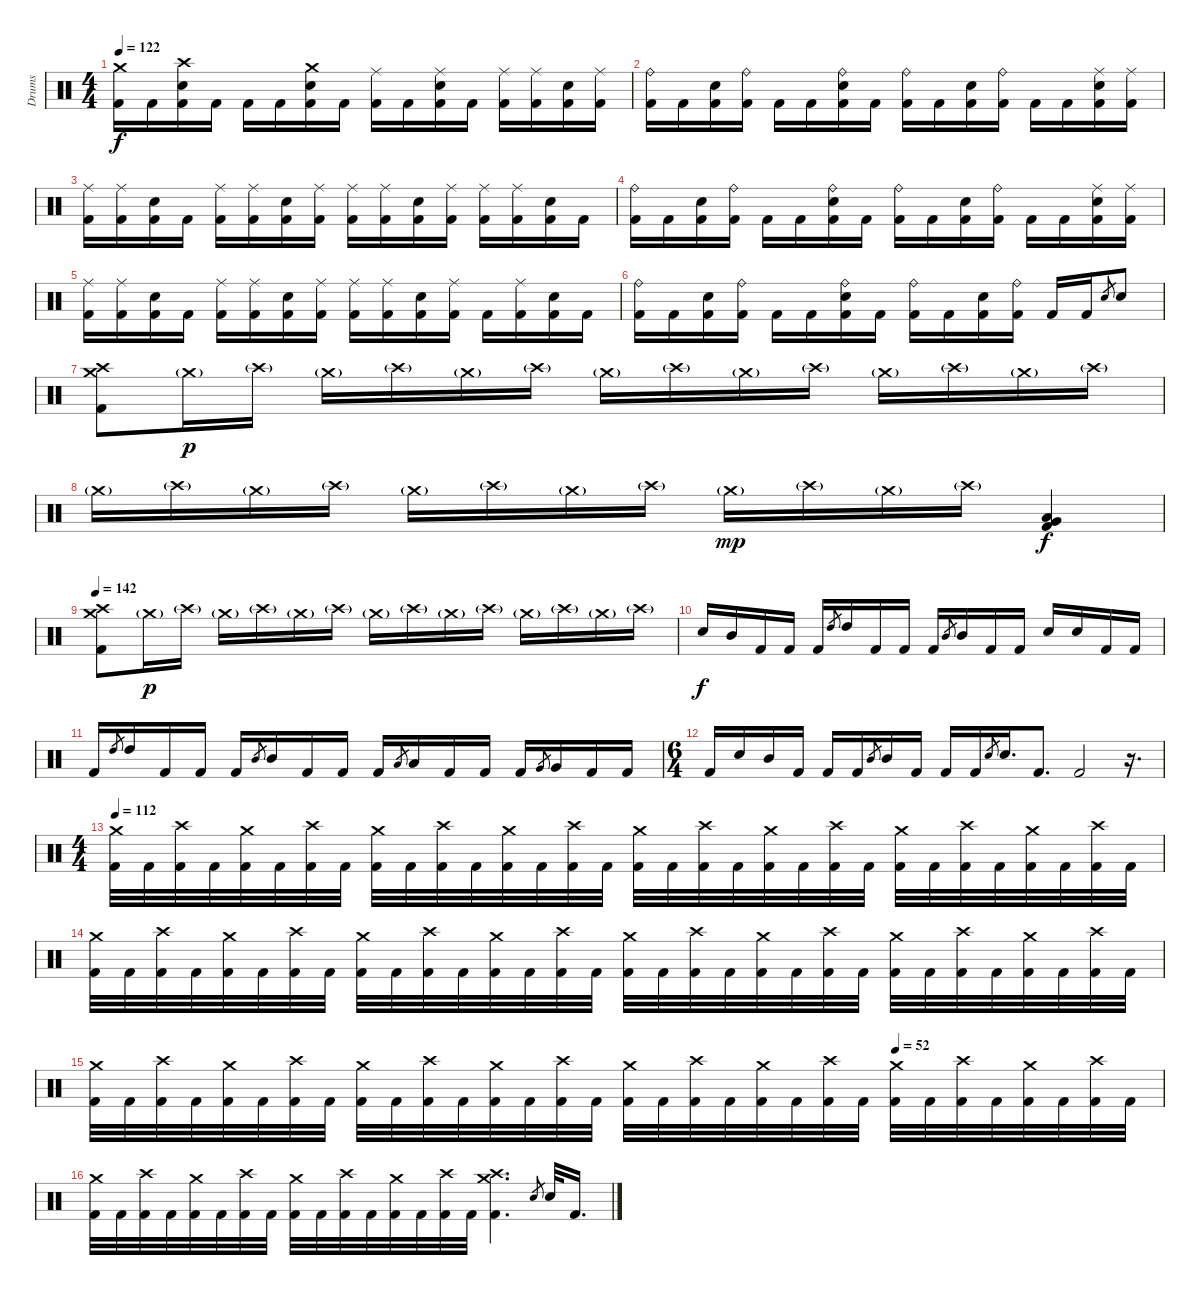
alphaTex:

\track ("Drums" "Drums") {instrument percussion}
\staff {score}
\articulation defaults
\ts (4 4)
\tempo 122
\clef neutral
\ks c
("Crash medium (hit)" "Kick (hit) 2").16{dy f} "Kick (hit) 2".16 ("Crash high (hit)" "Electric Snare (hit)" "Kick (hit) 2").16 "Kick (hit) 2".16 "Kick (hit) 2".16 "Kick (hit) 2".16 ("Crash medium (hit)" "Electric Snare (hit)" "Kick (hit) 2").16 "Kick (hit) 2".16 ("Ride (middle)" "Kick (hit) 2").16 "Kick (hit) 2".16 ("Ride (middle)" "Electric Snare (hit)" "Kick (hit) 2").16 "Kick (hit) 2".16 ("Ride (middle)" "Kick (hit) 2").16 ("Ride (middle)" "Kick (hit) 2").16 ("Electric Snare (hit)" "Kick (hit) 2").16 ("Ride (middle)" "Kick (hit) 2").16 |
("Ride (bell)" "Kick (hit) 2").16 "Kick (hit) 2".16 ("Electric Snare (hit)" "Kick (hit) 2").16 ("Ride (bell)" "Kick (hit) 2").16 "Kick (hit) 2".16 "Kick (hit) 2".16 ("Ride (bell)" "Electric Snare (hit)" "Kick (hit) 2").16 "Kick (hit) 2".16 ("Ride (bell)" "Kick (hit) 2").16 "Kick (hit) 2".16 ("Electric Snare (hit)" "Kick (hit) 2").16 ("Ride (bell)" "Kick (hit) 2").16 "Kick (hit) 2".16 "Kick (hit) 2".16 ("Ride (middle)" "Electric Snare (hit)" "Kick (hit) 2").16 ("Ride (middle)" "Kick (hit) 2").16 |
("Ride (middle)" "Kick (hit) 2").16 ("Ride (middle)" "Kick (hit) 2").16 ("Electric Snare (hit)" "Kick (hit) 2").16 "Kick (hit) 2".16 ("Ride (middle)" "Kick (hit) 2").16 ("Ride (middle)" "Kick (hit) 2").16 ("Electric Snare (hit)" "Kick (hit) 2").16 ("Ride (middle)" "Kick (hit) 2").16 ("Ride (middle)" "Kick (hit) 2").16 ("Ride (middle)" "Kick (hit) 2").16 ("Electric Snare (hit)" "Kick (hit) 2").16 ("Ride (middle)" "Kick (hit) 2").16 ("Ride (middle)" "Kick (hit) 2").16 ("Ride (middle)" "Kick (hit) 2").16 ("Electric Snare (hit)" "Kick (hit) 2").16 "Kick (hit) 2".16 |
("Ride (bell)" "Kick (hit) 2").16 "Kick (hit) 2".16 ("Electric Snare (hit)" "Kick (hit) 2").16 ("Ride (bell)" "Kick (hit) 2").16 "Kick (hit) 2".16 "Kick (hit) 2".16 ("Ride (bell)" "Electric Snare (hit)" "Kick (hit) 2").16 "Kick (hit) 2".16 ("Ride (bell)" "Kick (hit) 2").16 "Kick (hit) 2".16 ("Electric Snare (hit)" "Kick (hit) 2").16 ("Ride (bell)" "Kick (hit) 2").16 "Kick (hit) 2".16 "Kick (hit) 2".16 ("Ride (middle)" "Electric Snare (hit)" "Kick (hit) 2").16 ("Ride (middle)" "Kick (hit) 2").16 |
("Ride (middle)" "Kick (hit) 2").16 ("Ride (middle)" "Kick (hit) 2").16 ("Electric Snare (hit)" "Kick (hit) 2").16 "Kick (hit) 2".16 ("Ride (middle)" "Kick (hit) 2").16 ("Ride (middle)" "Kick (hit) 2").16 ("Electric Snare (hit)" "Kick (hit) 2").16 ("Ride (middle)" "Kick (hit) 2").16 ("Ride (middle)" "Kick (hit) 2").16 ("Ride (middle)" "Kick (hit) 2").16 ("Electric Snare (hit)" "Kick (hit) 2").16 ("Ride (middle)" "Kick (hit) 2").16 "Kick (hit) 2".16 ("Ride (middle)" "Kick (hit) 2").16 ("Electric Snare (hit)" "Kick (hit) 2").16 "Kick (hit) 2".16 |
("Ride (bell)" "Kick (hit) 2").16 "Kick (hit) 2".16 ("Electric Snare (hit)" "Kick (hit) 2").16 ("Ride (bell)" "Kick (hit) 2").16 "Kick (hit) 2".16 "Kick (hit) 2".16 ("Ride (bell)" "Electric Snare (hit)" "Kick (hit) 2").16 "Kick (hit) 2".16 ("Ride (bell)" "Kick (hit) 2").16 "Kick (hit) 2".16 ("Electric Snare (hit)" "Kick (hit) 2").16 ("Ride (bell)" "Kick (hit) 2").16 "Kick (hit) 2".16 "Kick (hit) 2".16 "Electric Snare (hit)".8{gr} "Electric Snare (hit)".8 |
("Crash medium (hit)" "Crash high (hit)" "Kick (hit) 2").8 "Crash medium (hit)"{g}.16{dy p} "Crash high (hit)"{g}.16 "Crash medium (hit)"{g}.16 "Crash high (hit)"{g}.16 "Crash medium (hit)"{g}.16 "Crash high (hit)"{g}.16 "Crash medium (hit)"{g}.16 "Crash high (hit)"{g}.16 "Crash medium (hit)"{g}.16 "Crash high (hit)"{g}.16 "Crash medium (hit)"{g}.16 "Crash high (hit)"{g}.16 "Crash medium (hit)"{g}.16 "Crash high (hit)"{g}.16 |
"Crash medium (hit)"{g}.16 "Crash high (hit)"{g}.16 "Crash medium (hit)"{g}.16 "Crash high (hit)"{g}.16 "Crash medium (hit)"{g}.16 "Crash high (hit)"{g}.16 "Crash medium (hit)"{g}.16 "Crash high (hit)"{g}.16 "Crash medium (hit)"{g}.16{dy mp} "Crash high (hit)"{g}.16 "Crash medium (hit)"{g}.16 "Crash high (hit)"{g}.16 ("Very Low Tom (hit)" "Low Tom (hit)" "Kick (hit) 2").4{dy f} |
\tempo 142
("Crash medium (hit)" "Crash high (hit)" "Kick (hit) 2").8 "Crash medium (hit)"{g}.16{dy p} "Crash high (hit)"{g}.16 "Crash medium (hit)"{g}.16 "Crash high (hit)"{g}.16 "Crash medium (hit)"{g}.16 "Crash high (hit)"{g}.16 "Crash medium (hit)"{g}.16 "Crash high (hit)"{g}.16 "Crash medium (hit)"{g}.16 "Crash high (hit)"{g}.16 "Crash medium (hit)"{g}.16 "Crash high (hit)"{g}.16 "Crash medium (hit)"{g}.16 "Crash high (hit)"{g}.16 |
"Electric Snare (hit)".16{dy f} "Mid Tom (hit)".16 "Kick (hit) 2".16 "Kick (hit) 2".16 "Kick (hit) 2".16 "High Tom (hit)".8{gr} "High Tom (hit)".16 "Kick (hit) 2".16 "Kick (hit) 2".16 "Kick (hit) 2".16 "Mid Tom (hit)".8{gr} "Mid Tom (hit)".16 "Kick (hit) 2".16 "Kick (hit) 2".16 "Electric Snare (hit)".16 "Electric Snare (hit)".16 "Kick (hit) 2".16 "Kick (hit) 2".16 |
"Kick (hit) 2".16 "High Tom (hit)".8{gr} "High Tom (hit)".16 "Kick (hit) 2".16 "Kick (hit) 2".16 "Kick (hit) 2".16 "Mid Tom (hit)".8{gr} "Mid Tom (hit)".16 "Kick (hit) 2".16 "Kick (hit) 2".16 "Kick (hit) 2".16 "Low Tom (hit)".8{gr} "Low Tom (hit)".16 "Kick (hit) 2".16 "Kick (hit) 2".16 "Kick (hit) 2".16 "Very Low Tom (hit)".8{gr} "Very Low Tom (hit)".16 "Kick (hit) 2".16 "Kick (hit) 2".16 |
\ts (6 4)
"Kick (hit) 2".16 "Electric Snare (hit)".16 "Mid Tom (hit)".16 "Kick (hit) 2".16 "Kick (hit) 2".16 "Kick (hit) 2".16 "Mid Tom (hit)".8{gr} "Mid Tom (hit)".16 "Kick (hit) 2".16 "Kick (hit) 2".16 "Kick (hit) 2".16 "Electric Snare (hit)".8{gr} "Electric Snare (hit)".16{d} "Kick (hit) 2".8{d} "Kick (hit) 2".2 r.16{d} |
\ts (4 4)
\tempo 112
("Crash medium (hit)" "Kick (hit) 2").32 "Kick (hit) 2".32 ("Crash high (hit)" "Kick (hit) 2").32 "Kick (hit) 2".32 ("Crash medium (hit)" "Kick (hit) 2").32 "Kick (hit) 2".32 ("Crash high (hit)" "Kick (hit) 2").32 "Kick (hit) 2".32 ("Crash medium (hit)" "Kick (hit) 2").32 "Kick (hit) 2".32 ("Crash high (hit)" "Kick (hit) 2").32 "Kick (hit) 2".32 ("Crash medium (hit)" "Kick (hit) 2").32 "Kick (hit) 2".32 ("Crash high (hit)" "Kick (hit) 2").32 "Kick (hit) 2".32 ("Crash medium (hit)" "Kick (hit) 2").32 "Kick (hit) 2".32 ("Crash high (hit)" "Kick (hit) 2").32 "Kick (hit) 2".32 ("Crash medium (hit)" "Kick (hit) 2").32 "Kick (hit) 2".32 ("Crash high (hit)" "Kick (hit) 2").32 "Kick (hit) 2".32 ("Crash medium (hit)" "Kick (hit) 2").32 "Kick (hit) 2".32 ("Crash high (hit)" "Kick (hit) 2").32 "Kick (hit) 2".32 ("Crash medium (hit)" "Kick (hit) 2").32 "Kick (hit) 2".32 ("Crash high (hit)" "Kick (hit) 2").32 "Kick (hit) 2".32 |
("Crash medium (hit)" "Kick (hit) 2").32 "Kick (hit) 2".32 ("Crash high (hit)" "Kick (hit) 2").32 "Kick (hit) 2".32 ("Crash medium (hit)" "Kick (hit) 2").32 "Kick (hit) 2".32 ("Crash high (hit)" "Kick (hit) 2").32 "Kick (hit) 2".32 ("Crash medium (hit)" "Kick (hit) 2").32 "Kick (hit) 2".32 ("Crash high (hit)" "Kick (hit) 2").32 "Kick (hit) 2".32 ("Crash medium (hit)" "Kick (hit) 2").32 "Kick (hit) 2".32 ("Crash high (hit)" "Kick (hit) 2").32 "Kick (hit) 2".32 ("Crash medium (hit)" "Kick (hit) 2").32 "Kick (hit) 2".32 ("Crash high (hit)" "Kick (hit) 2").32 "Kick (hit) 2".32 ("Crash medium (hit)" "Kick (hit) 2").32 "Kick (hit) 2".32 ("Crash high (hit)" "Kick (hit) 2").32 "Kick (hit) 2".32 ("Crash medium (hit)" "Kick (hit) 2").32 "Kick (hit) 2".32 ("Crash high (hit)" "Kick (hit) 2").32 "Kick (hit) 2".32 ("Crash medium (hit)" "Kick (hit) 2").32 "Kick (hit) 2".32 ("Crash high (hit)" "Kick (hit) 2").32 "Kick (hit) 2".32 |
\tempo (52 0.75)
("Crash medium (hit)" "Kick (hit) 2").32 "Kick (hit) 2".32 ("Crash high (hit)" "Kick (hit) 2").32 "Kick (hit) 2".32 ("Crash medium (hit)" "Kick (hit) 2").32 "Kick (hit) 2".32 ("Crash high (hit)" "Kick (hit) 2").32 "Kick (hit) 2".32 ("Crash medium (hit)" "Kick (hit) 2").32 "Kick (hit) 2".32 ("Crash high (hit)" "Kick (hit) 2").32 "Kick (hit) 2".32 ("Crash medium (hit)" "Kick (hit) 2").32 "Kick (hit) 2".32 ("Crash high (hit)" "Kick (hit) 2").32 "Kick (hit) 2".32 ("Crash medium (hit)" "Kick (hit) 2").32 "Kick (hit) 2".32 ("Crash high (hit)" "Kick (hit) 2").32 "Kick (hit) 2".32 ("Crash medium (hit)" "Kick (hit) 2").32 "Kick (hit) 2".32 ("Crash high (hit)" "Kick (hit) 2").32 "Kick (hit) 2".32 ("Crash medium (hit)" "Kick (hit) 2").32 "Kick (hit) 2".32 ("Crash high (hit)" "Kick (hit) 2").32 "Kick (hit) 2".32 ("Crash medium (hit)" "Kick (hit) 2").32 "Kick (hit) 2".32 ("Crash high (hit)" "Kick (hit) 2").32 "Kick (hit) 2".32 |
("Crash medium (hit)" "Kick (hit) 2").32 "Kick (hit) 2".32 ("Crash high (hit)" "Kick (hit) 2").32 "Kick (hit) 2".32 ("Crash medium (hit)" "Kick (hit) 2").32 "Kick (hit) 2".32 ("Crash high (hit)" "Kick (hit) 2").32 "Kick (hit) 2".32 ("Crash medium (hit)" "Kick (hit) 2").32 "Kick (hit) 2".32 ("Crash high (hit)" "Kick (hit) 2").32 "Kick (hit) 2".32 ("Crash medium (hit)" "Kick (hit) 2").32 "Kick (hit) 2".32 ("Crash high (hit)" "Kick (hit) 2").32 "Kick (hit) 2".32 ("Crash medium (hit)" "Crash high (hit)" "Kick (hit) 2").4{d} "Electric Snare (hit)".8{gr} "Electric Snare (hit)".32 "Kick (hit) 2".16{d}
